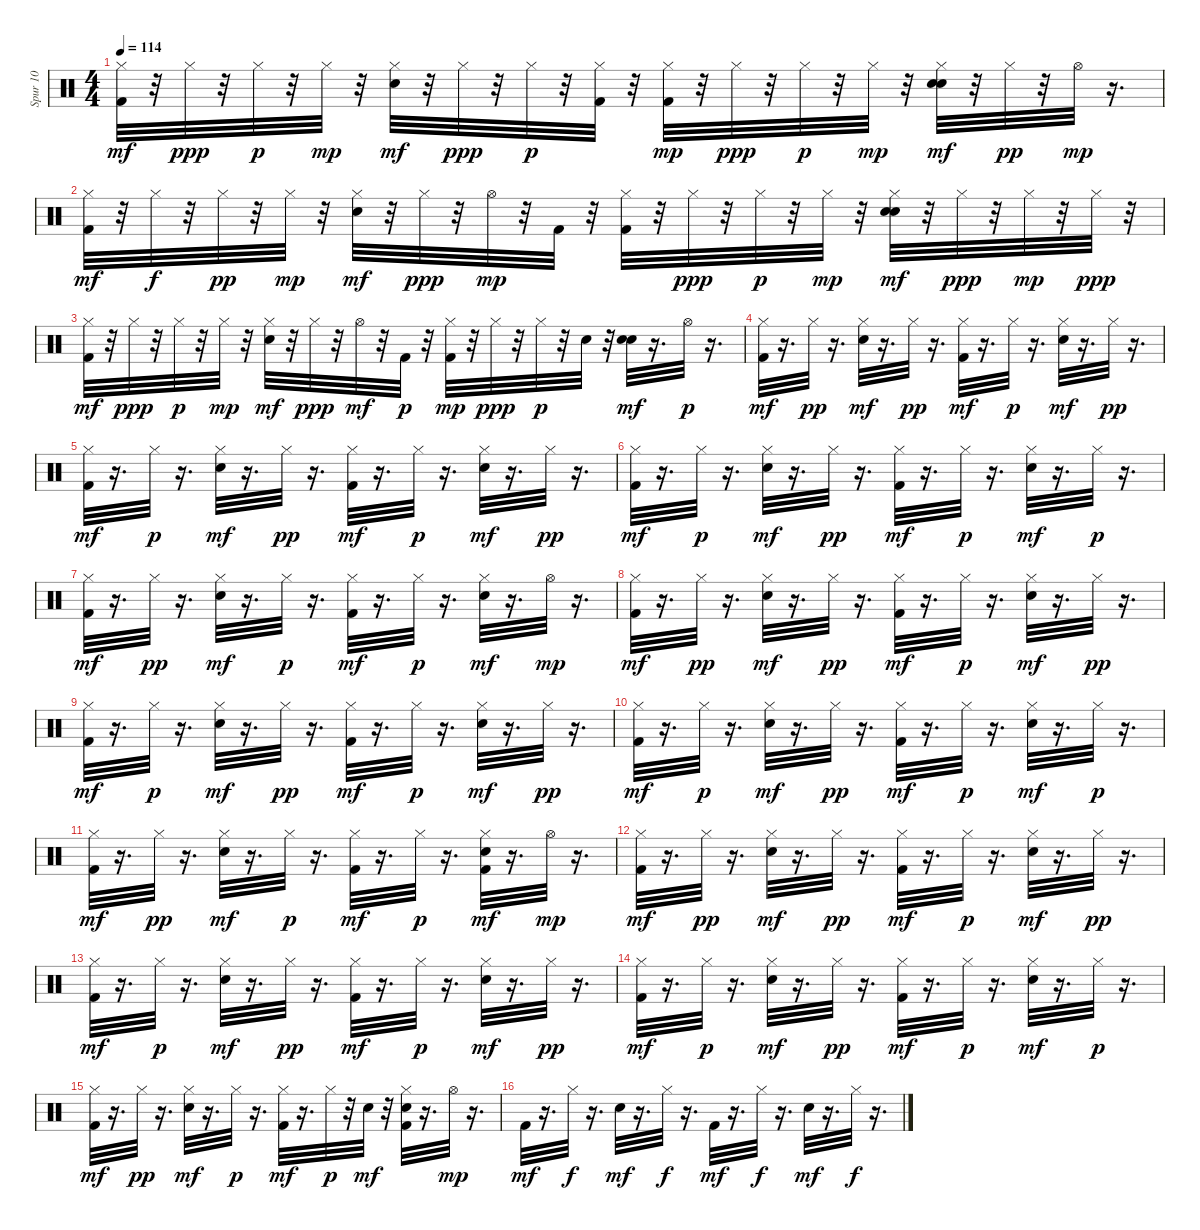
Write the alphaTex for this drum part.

\track ("Spur 10" "Spur 10") {instrument percussion}
\staff {score}
\articulation defaults
\ts (4 4)
\tempo 114
\clef neutral
\ks c
("Hi-Hat (closed)" "Kick (hit) 2").32{dy mf} r.32 "Hi-Hat (closed)".32{dy ppp} r.32 "Hi-Hat (closed)".32{dy p} r.32 "Hi-Hat (closed)".32{dy mp} r.32 ("Hi-Hat (closed)" "Electric Snare (hit)").32{dy mf} r.32 "Hi-Hat (closed)".32{dy ppp} r.32 "Hi-Hat (closed)".32{dy p} r.32 ("Hi-Hat (closed)" "Kick (hit) 2").32 r.32 ("Hi-Hat (closed)" "Kick (hit) 2").32{dy mp} r.32 "Hi-Hat (closed)".32{dy ppp} r.32 "Hi-Hat (closed)".32{dy p} r.32 "Hi-Hat (closed)".32{dy mp} r.32 ("Hand Clap (hit)" "Hi-Hat (closed)" "Electric Snare (hit)").32{dy mf} r.32 "Hi-Hat (closed)".32{dy pp} r.32 "Hi-Hat (open)".32{dy mp} r.16{d} |
("Hi-Hat (closed)" "Kick (hit) 2").32{dy mf} r.32 "Hi-Hat (closed)".32{dy f} r.32 "Hi-Hat (closed)".32{dy pp} r.32 "Hi-Hat (closed)".32{dy mp} r.32 ("Hi-Hat (closed)" "Electric Snare (hit)").32{dy mf} r.32 "Hi-Hat (closed)".32{dy ppp} r.32 "Hi-Hat (open)".32{dy mp} r.32 "Kick (hit) 2".32 r.32 ("Hi-Hat (closed)" "Kick (hit) 2").32 r.32 "Hi-Hat (closed)".32{dy ppp} r.32 "Hi-Hat (closed)".32{dy p} r.32 "Hi-Hat (closed)".32{dy mp} r.32 ("Hand Clap (hit)" "Hi-Hat (closed)" "Electric Snare (hit)").32{dy mf} r.32 "Hi-Hat (closed)".32{dy ppp} r.32 "Hi-Hat (closed)".32{dy mp} r.32 "Hi-Hat (closed)".32{dy ppp} r.32 |
("Hi-Hat (closed)" "Kick (hit) 2").32{dy mf} r.32 "Hi-Hat (closed)".32{dy ppp} r.32 "Hi-Hat (closed)".32{dy p} r.32 "Hi-Hat (closed)".32{dy mp} r.32 ("Hi-Hat (closed)" "Electric Snare (hit)").32{dy mf} r.32 "Hi-Hat (closed)".32{dy ppp} r.32 "Hi-Hat (open)".32{dy mf} r.32 "Kick (hit) 2".32{dy p} r.32 ("Hi-Hat (closed)" "Kick (hit) 2").32{dy mp} r.32 "Hi-Hat (closed)".32{dy ppp} r.32 "Hi-Hat (closed)".32{dy p} r.32 "Electric Snare (hit)".32 r.32 ("Hand Clap (hit)" "Electric Snare (hit)").32{dy mf} r.16{d} "Hi-Hat (open)".32{dy p} r.16{d} |
("Hi-Hat (closed)" "Kick (hit) 2").32{dy mf} r.16{d} "Hi-Hat (closed)".32{dy pp} r.16{d} ("Hi-Hat (closed)" "Electric Snare (hit)").32{dy mf} r.16{d} "Hi-Hat (closed)".32{dy pp} r.16{d} ("Hi-Hat (closed)" "Kick (hit) 2").32{dy mf} r.16{d} "Hi-Hat (closed)".32{dy p} r.16{d} ("Hi-Hat (closed)" "Electric Snare (hit)").32{dy mf} r.16{d} "Hi-Hat (closed)".32{dy pp} r.16{d} |
("Hi-Hat (closed)" "Kick (hit) 2").32{dy mf} r.16{d} "Hi-Hat (closed)".32{dy p} r.16{d} ("Hi-Hat (closed)" "Electric Snare (hit)").32{dy mf} r.16{d} "Hi-Hat (closed)".32{dy pp} r.16{d} ("Hi-Hat (closed)" "Kick (hit) 2").32{dy mf} r.16{d} "Hi-Hat (closed)".32{dy p} r.16{d} ("Hi-Hat (closed)" "Electric Snare (hit)").32{dy mf} r.16{d} "Hi-Hat (closed)".32{dy pp} r.16{d} |
("Hi-Hat (closed)" "Kick (hit) 2").32{dy mf} r.16{d} "Hi-Hat (closed)".32{dy p} r.16{d} ("Hi-Hat (closed)" "Electric Snare (hit)").32{dy mf} r.16{d} "Hi-Hat (closed)".32{dy pp} r.16{d} ("Hi-Hat (closed)" "Kick (hit) 2").32{dy mf} r.16{d} "Hi-Hat (closed)".32{dy p} r.16{d} ("Hi-Hat (closed)" "Electric Snare (hit)").32{dy mf} r.16{d} "Hi-Hat (closed)".32{dy p} r.16{d} |
("Hi-Hat (closed)" "Kick (hit) 2").32{dy mf} r.16{d} "Hi-Hat (closed)".32{dy pp} r.16{d} ("Hi-Hat (closed)" "Electric Snare (hit)").32{dy mf} r.16{d} "Hi-Hat (closed)".32{dy p} r.16{d} ("Hi-Hat (closed)" "Kick (hit) 2").32{dy mf} r.16{d} "Hi-Hat (closed)".32{dy p} r.16{d} ("Hi-Hat (closed)" "Electric Snare (hit)").32{dy mf} r.16{d} "Hi-Hat (open)".32{dy mp} r.16{d} |
("Hi-Hat (closed)" "Kick (hit) 2").32{dy mf} r.16{d} "Hi-Hat (closed)".32{dy pp} r.16{d} ("Hi-Hat (closed)" "Electric Snare (hit)").32{dy mf} r.16{d} "Hi-Hat (closed)".32{dy pp} r.16{d} ("Hi-Hat (closed)" "Kick (hit) 2").32{dy mf} r.16{d} "Hi-Hat (closed)".32{dy p} r.16{d} ("Hi-Hat (closed)" "Electric Snare (hit)").32{dy mf} r.16{d} "Hi-Hat (closed)".32{dy pp} r.16{d} |
("Hi-Hat (closed)" "Kick (hit) 2").32{dy mf} r.16{d} "Hi-Hat (closed)".32{dy p} r.16{d} ("Hi-Hat (closed)" "Electric Snare (hit)").32{dy mf} r.16{d} "Hi-Hat (closed)".32{dy pp} r.16{d} ("Hi-Hat (closed)" "Kick (hit) 2").32{dy mf} r.16{d} "Hi-Hat (closed)".32{dy p} r.16{d} ("Hi-Hat (closed)" "Electric Snare (hit)").32{dy mf} r.16{d} "Hi-Hat (closed)".32{dy pp} r.16{d} |
("Hi-Hat (closed)" "Kick (hit) 2").32{dy mf} r.16{d} "Hi-Hat (closed)".32{dy p} r.16{d} ("Hi-Hat (closed)" "Electric Snare (hit)").32{dy mf} r.16{d} "Hi-Hat (closed)".32{dy pp} r.16{d} ("Hi-Hat (closed)" "Kick (hit) 2").32{dy mf} r.16{d} "Hi-Hat (closed)".32{dy p} r.16{d} ("Hi-Hat (closed)" "Electric Snare (hit)").32{dy mf} r.16{d} "Hi-Hat (closed)".32{dy p} r.16{d} |
("Hi-Hat (closed)" "Kick (hit) 2").32{dy mf} r.16{d} "Hi-Hat (closed)".32{dy pp} r.16{d} ("Hi-Hat (closed)" "Electric Snare (hit)").32{dy mf} r.16{d} "Hi-Hat (closed)".32{dy p} r.16{d} ("Hi-Hat (closed)" "Kick (hit) 2").32{dy mf} r.16{d} "Hi-Hat (closed)".32{dy p} r.16{d} ("Hi-Hat (closed)" "Electric Snare (hit)" "Kick (hit) 2").32{dy mf} r.16{d} "Hi-Hat (open)".32{dy mp} r.16{d} |
("Hi-Hat (closed)" "Kick (hit) 2").32{dy mf} r.16{d} "Hi-Hat (closed)".32{dy pp} r.16{d} ("Hi-Hat (closed)" "Electric Snare (hit)").32{dy mf} r.16{d} "Hi-Hat (closed)".32{dy pp} r.16{d} ("Hi-Hat (closed)" "Kick (hit) 2").32{dy mf} r.16{d} "Hi-Hat (closed)".32{dy p} r.16{d} ("Hi-Hat (closed)" "Electric Snare (hit)").32{dy mf} r.16{d} "Hi-Hat (closed)".32{dy pp} r.16{d} |
("Hi-Hat (closed)" "Kick (hit) 2").32{dy mf} r.16{d} "Hi-Hat (closed)".32{dy p} r.16{d} ("Hi-Hat (closed)" "Electric Snare (hit)").32{dy mf} r.16{d} "Hi-Hat (closed)".32{dy pp} r.16{d} ("Hi-Hat (closed)" "Kick (hit) 2").32{dy mf} r.16{d} "Hi-Hat (closed)".32{dy p} r.16{d} ("Hi-Hat (closed)" "Electric Snare (hit)").32{dy mf} r.16{d} "Hi-Hat (closed)".32{dy pp} r.16{d} |
("Hi-Hat (closed)" "Kick (hit) 2").32{dy mf} r.16{d} "Hi-Hat (closed)".32{dy p} r.16{d} ("Hi-Hat (closed)" "Electric Snare (hit)").32{dy mf} r.16{d} "Hi-Hat (closed)".32{dy pp} r.16{d} ("Hi-Hat (closed)" "Kick (hit) 2").32{dy mf} r.16{d} "Hi-Hat (closed)".32{dy p} r.16{d} ("Hi-Hat (closed)" "Electric Snare (hit)").32{dy mf} r.16{d} "Hi-Hat (closed)".32{dy p} r.16{d} |
("Hi-Hat (closed)" "Kick (hit) 2").32{dy mf} r.16{d} "Hi-Hat (closed)".32{dy pp} r.16{d} ("Hi-Hat (closed)" "Electric Snare (hit)").32{dy mf} r.16{d} "Hi-Hat (closed)".32{dy p} r.16{d} ("Hi-Hat (closed)" "Kick (hit) 2").32{dy mf} r.16{d} "Hi-Hat (closed)".32{dy p} r.32 "Electric Snare (hit)".32{dy mf} r.32 ("Hi-Hat (closed)" "Electric Snare (hit)" "Kick (hit) 2").32 r.16{d} "Hi-Hat (open)".32{dy mp} r.16{d} |
"Kick (hit) 2".32{dy mf} r.16{d} "Hi-Hat (closed)".32{dy f} r.16{d} "Electric Snare (hit)".32{dy mf} r.16{d} "Hi-Hat (closed)".32{dy f} r.16{d} "Kick (hit) 2".32{dy mf} r.16{d} "Hi-Hat (closed)".32{dy f} r.16{d} "Electric Snare (hit)".32{dy mf} r.16{d} "Hi-Hat (closed)".32{dy f} r.16{d}
